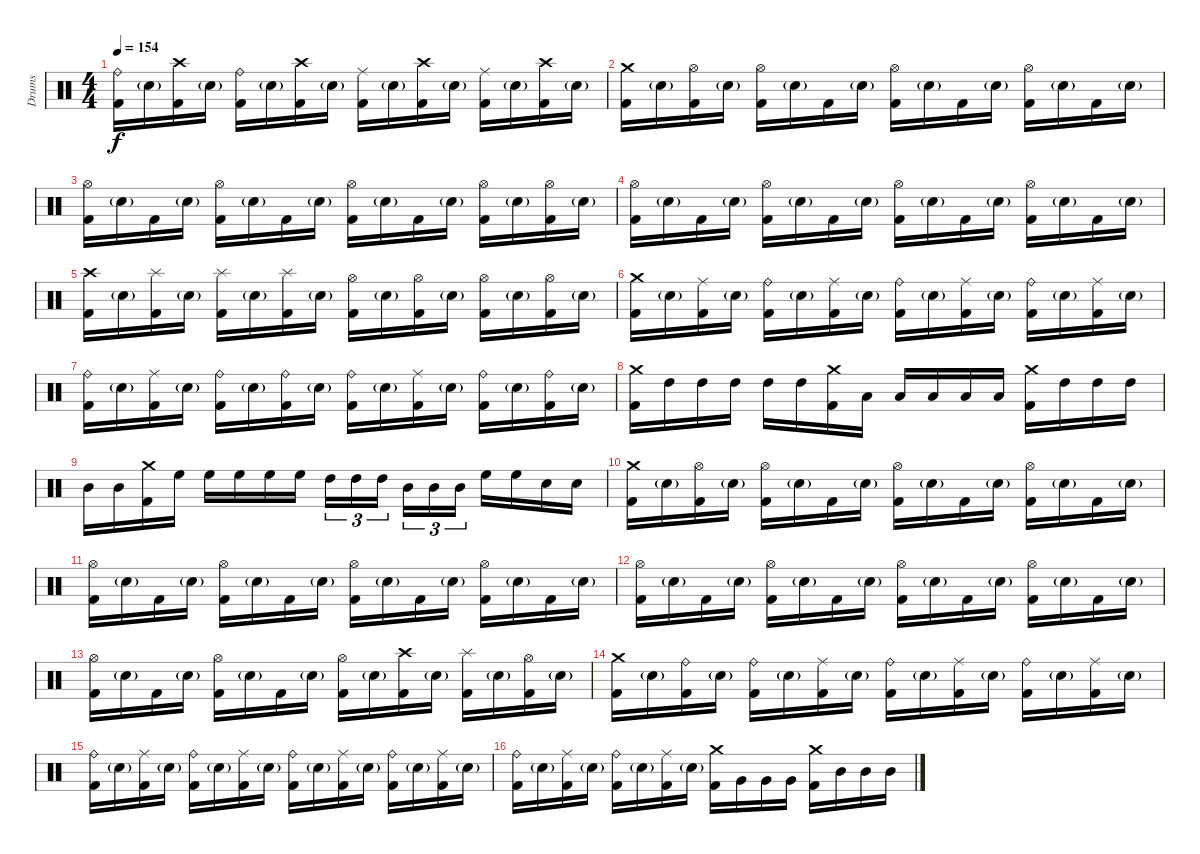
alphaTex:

\track ("Drums" "Drums") {instrument percussion}
\staff {score}
\articulation defaults
\ts (4 4)
\tempo 154
\clef neutral
\ks c
("Ride (bell)" "Kick (hit) 2").16{dy f} "Snare (hit) 2"{g}.16 ("Crash high (hit)" "Kick (hit) 2").16 "Snare (hit) 2"{g}.16 ("Ride (bell)" "Kick (hit) 2").16 "Snare (hit) 2"{g}.16 ("Crash high (hit)" "Kick (hit) 2").16 "Snare (hit) 2"{g}.16 ("Ride (middle)" "Kick (hit) 2").16 "Snare (hit) 2"{g}.16 ("Crash high (hit)" "Kick (hit) 2").16 "Snare (hit) 2"{g}.16 ("Ride (middle)" "Kick (hit) 2").16 "Snare (hit) 2"{g}.16 ("Crash high (hit)" "Kick (hit) 2").16 "Snare (hit) 2"{g}.16 |
("Crash medium (hit)" "Kick (hit) 2").16 "Snare (hit) 2"{g}.16 ("Hi-Hat (open)" "Kick (hit) 2").16 "Snare (hit) 2"{g}.16 ("Hi-Hat (open)" "Kick (hit) 2").16 "Snare (hit) 2"{g}.16 "Kick (hit) 2".16 "Snare (hit) 2"{g}.16 ("Hi-Hat (open)" "Kick (hit) 2").16 "Snare (hit) 2"{g}.16 "Kick (hit) 2".16 "Snare (hit) 2"{g}.16 ("Hi-Hat (open)" "Kick (hit) 2").16 "Snare (hit) 2"{g}.16 "Kick (hit) 2".16 "Snare (hit) 2"{g}.16 |
("Hi-Hat (open)" "Kick (hit) 2").16 "Snare (hit) 2"{g}.16 "Kick (hit) 2".16 "Snare (hit) 2"{g}.16 ("Hi-Hat (open)" "Kick (hit) 2").16 "Snare (hit) 2"{g}.16 "Kick (hit) 2".16 "Snare (hit) 2"{g}.16 ("Hi-Hat (open)" "Kick (hit) 2").16 "Snare (hit) 2"{g}.16 "Kick (hit) 2".16 "Snare (hit) 2"{g}.16 ("Hi-Hat (open)" "Kick (hit) 2").16 "Snare (hit) 2"{g}.16 ("Hi-Hat (open)" "Kick (hit) 2").16 "Snare (hit) 2"{g}.16 |
("Hi-Hat (open)" "Kick (hit) 2").16 "Snare (hit) 2"{g}.16 "Kick (hit) 2".16 "Snare (hit) 2"{g}.16 ("Hi-Hat (open)" "Kick (hit) 2").16 "Snare (hit) 2"{g}.16 "Kick (hit) 2".16 "Snare (hit) 2"{g}.16 ("Hi-Hat (open)" "Kick (hit) 2").16 "Snare (hit) 2"{g}.16 "Kick (hit) 2".16 "Snare (hit) 2"{g}.16 ("Hi-Hat (open)" "Kick (hit) 2").16 "Snare (hit) 2"{g}.16 "Kick (hit) 2".16 "Snare (hit) 2"{g}.16 |
("Crash high (hit)" "Kick (hit) 2").16 "Snare (hit) 2"{g}.16 ("Splash (hit)" "Kick (hit) 2").16 "Snare (hit) 2"{g}.16 ("Splash (hit)" "Kick (hit) 2").16 "Snare (hit) 2"{g}.16 ("Splash (hit)" "Kick (hit) 2").16 "Snare (hit) 2"{g}.16 ("Hi-Hat (open)" "Kick (hit) 2").16 "Snare (hit) 2"{g}.16 ("Hi-Hat (open)" "Kick (hit) 2").16 "Snare (hit) 2"{g}.16 ("Hi-Hat (open)" "Kick (hit) 2").16 "Snare (hit) 2"{g}.16 ("Hi-Hat (open)" "Kick (hit) 2").16 "Snare (hit) 2"{g}.16 |
("Crash medium (hit)" "Kick (hit) 2").16 "Snare (hit) 2"{g}.16 ("Ride (middle)" "Kick (hit) 2").16 "Snare (hit) 2"{g}.16 ("Ride (bell)" "Kick (hit) 2").16 "Snare (hit) 2"{g}.16 ("Ride (middle)" "Kick (hit) 2").16 "Snare (hit) 2"{g}.16 ("Ride (bell)" "Kick (hit) 2").16 "Snare (hit) 2"{g}.16 ("Ride (middle)" "Kick (hit) 2").16 "Snare (hit) 2"{g}.16 ("Ride (bell)" "Kick (hit) 2").16 "Snare (hit) 2"{g}.16 ("Ride (middle)" "Kick (hit) 2").16 "Snare (hit) 2"{g}.16 |
("Ride (bell)" "Kick (hit) 2").16 "Snare (hit) 2"{g}.16 ("Ride (middle)" "Kick (hit) 2").16 "Snare (hit) 2"{g}.16 ("Ride (bell)" "Kick (hit) 2").16 "Snare (hit) 2"{g}.16 ("Ride (bell)" "Kick (hit) 2").16 "Snare (hit) 2"{g}.16 ("Ride (bell)" "Kick (hit) 2").16 "Snare (hit) 2"{g}.16 ("Ride (middle)" "Kick (hit) 2").16 "Snare (hit) 2"{g}.16 ("Ride (bell)" "Kick (hit) 2").16 "Snare (hit) 2"{g}.16 ("Ride (bell)" "Kick (hit) 2").16 "Snare (hit) 2"{g}.16 |
("Crash medium (hit)" "Kick (hit) 2").16 "High Tom (hit)".16 "High Tom (hit)".16 "High Tom (hit)".16 "High Tom (hit)".16 "High Tom (hit)".16 ("Crash medium (hit)" "Kick (hit) 2").16 "Low Tom (hit)".16 "Low Tom (hit)".16 "Low Tom (hit)".16 "Low Tom (hit)".16 "Low Tom (hit)".16 ("Crash medium (hit)" "Kick (hit) 2").16 "High Tom (hit)".16 "High Tom (hit)".16 "High Tom (hit)".16 |
"Mid Tom (hit)".16 "Mid Tom (hit)".16 ("Crash medium (hit)" "Kick (hit) 2").16 "High Floor Tom (hit)".16 "High Floor Tom (hit)".16 "High Floor Tom (hit)".16 "High Floor Tom (hit)".16 "High Floor Tom (hit)".16 "High Tom (hit)".16{tu (3 2)} "High Tom (hit)".16{tu (3 2)} "High Tom (hit)".16{tu (3 2)} "Mid Tom (hit)".16{tu (3 2)} "Mid Tom (hit)".16{tu (3 2)} "Mid Tom (hit)".16{tu (3 2)} "High Floor Tom (hit)".16 "High Floor Tom (hit)".16 "Snare (hit) 2".16 "Snare (hit) 2".16 |
("Crash medium (hit)" "Kick (hit) 2").16 "Snare (hit) 2"{g}.16 ("Hi-Hat (open)" "Kick (hit) 2").16 "Snare (hit) 2"{g}.16 ("Hi-Hat (open)" "Kick (hit) 2").16 "Snare (hit) 2"{g}.16 "Kick (hit) 2".16 "Snare (hit) 2"{g}.16 ("Hi-Hat (open)" "Kick (hit) 2").16 "Snare (hit) 2"{g}.16 "Kick (hit) 2".16 "Snare (hit) 2"{g}.16 ("Hi-Hat (open)" "Kick (hit) 2").16 "Snare (hit) 2"{g}.16 "Kick (hit) 2".16 "Snare (hit) 2"{g}.16 |
("Hi-Hat (open)" "Kick (hit) 2").16 "Snare (hit) 2"{g}.16 "Kick (hit) 2".16 "Snare (hit) 2"{g}.16 ("Hi-Hat (open)" "Kick (hit) 2").16 "Snare (hit) 2"{g}.16 "Kick (hit) 2".16 "Snare (hit) 2"{g}.16 ("Hi-Hat (open)" "Kick (hit) 2").16 "Snare (hit) 2"{g}.16 "Kick (hit) 2".16 "Snare (hit) 2"{g}.16 ("Hi-Hat (open)" "Kick (hit) 2").16 "Snare (hit) 2"{g}.16 "Kick (hit) 2".16 "Snare (hit) 2"{g}.16 |
("Hi-Hat (open)" "Kick (hit) 2").16 "Snare (hit) 2"{g}.16 "Kick (hit) 2".16 "Snare (hit) 2"{g}.16 ("Hi-Hat (open)" "Kick (hit) 2").16 "Snare (hit) 2"{g}.16 "Kick (hit) 2".16 "Snare (hit) 2"{g}.16 ("Hi-Hat (open)" "Kick (hit) 2").16 "Snare (hit) 2"{g}.16 "Kick (hit) 2".16 "Snare (hit) 2"{g}.16 ("Hi-Hat (open)" "Kick (hit) 2").16 "Snare (hit) 2"{g}.16 "Kick (hit) 2".16 "Snare (hit) 2"{g}.16 |
("Hi-Hat (open)" "Kick (hit) 2").16 "Snare (hit) 2"{g}.16 "Kick (hit) 2".16 "Snare (hit) 2"{g}.16 ("Hi-Hat (open)" "Kick (hit) 2").16 "Snare (hit) 2"{g}.16 "Kick (hit) 2".16 "Snare (hit) 2"{g}.16 ("Hi-Hat (open)" "Kick (hit) 2").16 "Snare (hit) 2"{g}.16 ("Crash high (hit)" "Kick (hit) 2").16 "Snare (hit) 2"{g}.16 ("Splash (hit)" "Kick (hit) 2").16 "Snare (hit) 2"{g}.16 ("Hi-Hat (open)" "Kick (hit) 2").16 "Snare (hit) 2"{g}.16 |
("Crash medium (hit)" "Kick (hit) 2").16 "Snare (hit) 2"{g}.16 ("Ride (bell)" "Kick (hit) 2").16 "Snare (hit) 2"{g}.16 ("Ride (bell)" "Kick (hit) 2").16 "Snare (hit) 2"{g}.16 ("Ride (middle)" "Kick (hit) 2").16 "Snare (hit) 2"{g}.16 ("Ride (bell)" "Kick (hit) 2").16 "Snare (hit) 2"{g}.16 ("Ride (middle)" "Kick (hit) 2").16 "Snare (hit) 2"{g}.16 ("Ride (bell)" "Kick (hit) 2").16 "Snare (hit) 2"{g}.16 ("Ride (middle)" "Kick (hit) 2").16 "Snare (hit) 2"{g}.16 |
("Ride (bell)" "Kick (hit) 2").16 "Snare (hit) 2"{g}.16 ("Ride (middle)" "Kick (hit) 2").16 "Snare (hit) 2"{g}.16 ("Ride (bell)" "Kick (hit) 2").16 "Snare (hit) 2"{g}.16 ("Ride (middle)" "Kick (hit) 2").16 "Snare (hit) 2"{g}.16 ("Ride (bell)" "Kick (hit) 2").16 "Snare (hit) 2"{g}.16 ("Ride (middle)" "Kick (hit) 2").16 "Snare (hit) 2"{g}.16 ("Ride (bell)" "Kick (hit) 2").16 "Snare (hit) 2"{g}.16 ("Ride (middle)" "Kick (hit) 2").16 "Snare (hit) 2"{g}.16 |
("Ride (bell)" "Kick (hit) 2").16 "Snare (hit) 2"{g}.16 ("Ride (middle)" "Kick (hit) 2").16 "Snare (hit) 2"{g}.16 ("Ride (bell)" "Kick (hit) 2").16 "Snare (hit) 2"{g}.16 ("Ride (middle)" "Kick (hit) 2").16 "Snare (hit) 2"{g}.16 ("Crash medium (hit)" "Kick (hit) 2").16 "Very Low Tom (hit)".16 "Very Low Tom (hit)".16 "Very Low Tom (hit)".16 ("Crash medium (hit)" "Kick (hit) 2").16 "Mid Tom (hit)".16 "Mid Tom (hit)".16 "Mid Tom (hit)".16
